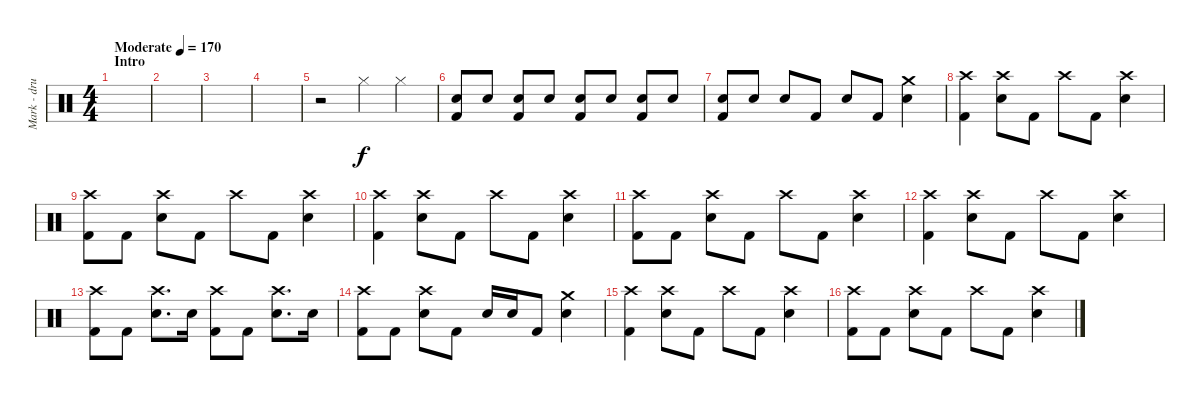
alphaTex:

\track ("Mark - drums" "Mark - dru") {instrument percussion}
\staff {score}
\articulation defaults
\ts (4 4)
\section ("" "Intro")
\tempo (170 "Moderate")
\clef neutral
\ks c
|
|
|
|
r.2 "Hi-Hat (closed)".4 "Hi-Hat (closed)".4 |
("Kick (hit) 2" "Electric Snare (hit)").8 "Electric Snare (hit)".8 ("Kick (hit) 2" "Electric Snare (hit)").8 "Electric Snare (hit)".8 ("Kick (hit) 2" "Electric Snare (hit)").8 "Electric Snare (hit)".8 ("Kick (hit) 2" "Electric Snare (hit)").8 "Electric Snare (hit)".8 |
("Kick (hit) 2" "Electric Snare (hit)").8 "Electric Snare (hit)".8 "Electric Snare (hit)".8 "Kick (hit) 2".8 "Electric Snare (hit)".8 "Kick (hit) 2".8 ("Electric Snare (hit)" "Crash medium (hit)").4 |
("Kick (hit) 2" "Crash high (hit)").4 ("Electric Snare (hit)" "Crash high (hit)").8 "Kick (hit) 2".8 "Crash high (hit)".8 "Kick (hit) 2".8 ("Electric Snare (hit)" "Crash high (hit)").4 |
("Kick (hit) 2" "Crash high (hit)").8 "Kick (hit) 2".8 ("Electric Snare (hit)" "Crash high (hit)").8 "Kick (hit) 2".8 "Crash high (hit)".8 "Kick (hit) 2".8 ("Electric Snare (hit)" "Crash high (hit)").4 |
("Kick (hit) 2" "Crash high (hit)").4 ("Electric Snare (hit)" "Crash high (hit)").8 "Kick (hit) 2".8 "Crash high (hit)".8 "Kick (hit) 2".8 ("Electric Snare (hit)" "Crash high (hit)").4 |
("Kick (hit) 2" "Crash high (hit)").8 "Kick (hit) 2".8 ("Electric Snare (hit)" "Crash high (hit)").8 "Kick (hit) 2".8 "Crash high (hit)".8 "Kick (hit) 2".8 ("Electric Snare (hit)" "Crash high (hit)").4 |
("Kick (hit) 2" "Crash high (hit)").4 ("Electric Snare (hit)" "Crash high (hit)").8 "Kick (hit) 2".8 "Crash high (hit)".8 "Kick (hit) 2".8 ("Electric Snare (hit)" "Crash high (hit)").4 |
("Kick (hit) 2" "Crash high (hit)").8 "Kick (hit) 2".8 ("Electric Snare (hit)" "Crash high (hit)").8{d} "Electric Snare (hit)".16 ("Kick (hit) 2" "Crash high (hit)").8 "Kick (hit) 2".8 ("Electric Snare (hit)" "Crash high (hit)").8{d} "Electric Snare (hit)".16 |
("Kick (hit) 2" "Crash high (hit)").8 "Kick (hit) 2".8 ("Electric Snare (hit)" "Crash high (hit)").8 "Kick (hit) 2".8 "Electric Snare (hit)".16 "Electric Snare (hit)".16 "Kick (hit) 2".8 ("Electric Snare (hit)" "Crash medium (hit)").4 |
("Kick (hit) 2" "Crash high (hit)").4 ("Electric Snare (hit)" "Crash high (hit)").8 "Kick (hit) 2".8 "Crash high (hit)".8 "Kick (hit) 2".8 ("Electric Snare (hit)" "Crash high (hit)").4 |
("Kick (hit) 2" "Crash high (hit)").8 "Kick (hit) 2".8 ("Electric Snare (hit)" "Crash high (hit)").8 "Kick (hit) 2".8 "Crash high (hit)".8 "Kick (hit) 2".8 ("Electric Snare (hit)" "Crash high (hit)").4
